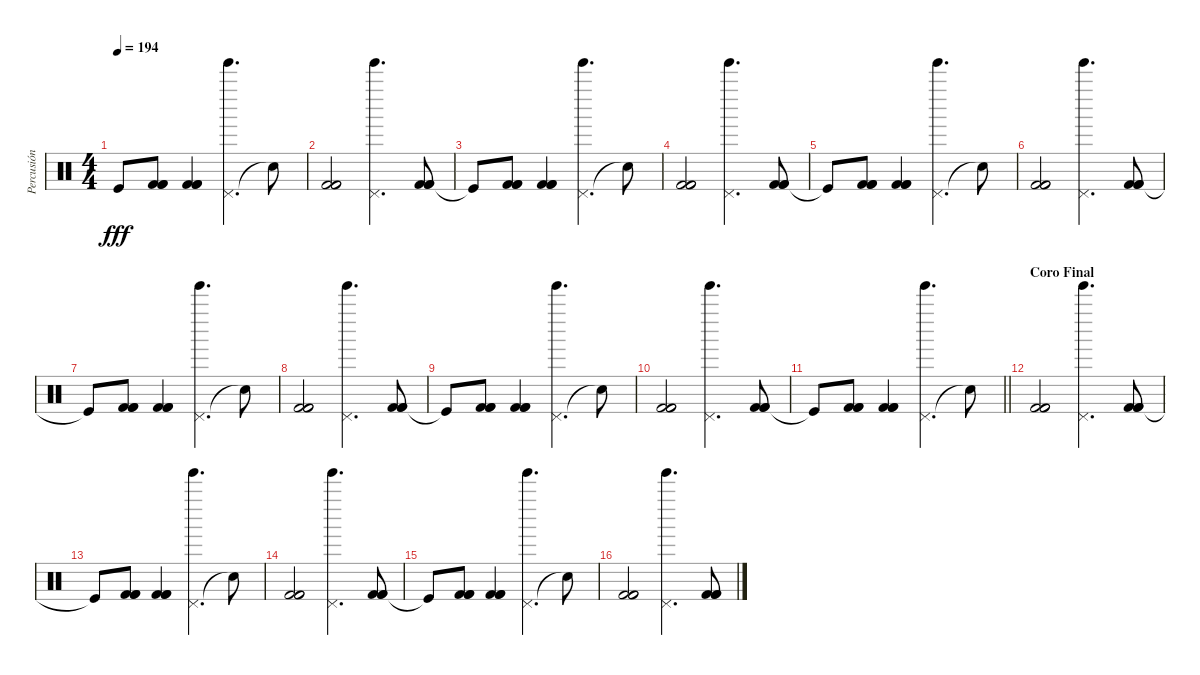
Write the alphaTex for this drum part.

\track ("Percusión" "Percusión") {instrument percussion}
\staff {score}
\articulation defaults
\ts (4 4)
\tempo 194
\clef neutral
\ks c "Kick (hit)"{t}.8{dy fff}
("Kick (hit) 2" "Kick (hit) 2" "Kick (hit) 2").8 ("Kick (hit) 2" "Kick (hit) 2" "Kick (hit) 2").4 ("Pedal Hi-Hat (hit)" "Tinkle Bell (hit)").4{d} "Snare (hit)"{t}.8 |
("Kick (hit) 2" "Kick (hit) 2" "Kick (hit) 2").2 ("Pedal Hi-Hat (hit)" "Tinkle Bell (hit)").4{d} ("Kick (hit) 2" "Kick (hit) 2" "Kick (hit) 2").8 |
"Kick (hit)"{t}.8 ("Kick (hit) 2" "Kick (hit) 2" "Kick (hit) 2").8 ("Kick (hit) 2" "Kick (hit) 2" "Kick (hit) 2").4 ("Pedal Hi-Hat (hit)" "Tinkle Bell (hit)").4{d} "Snare (hit)"{t}.8 |
("Kick (hit) 2" "Kick (hit) 2" "Kick (hit) 2").2 ("Pedal Hi-Hat (hit)" "Tinkle Bell (hit)").4{d} ("Kick (hit) 2" "Kick (hit) 2" "Kick (hit) 2").8 |
"Kick (hit)"{t}.8 ("Kick (hit) 2" "Kick (hit) 2" "Kick (hit) 2").8 ("Kick (hit) 2" "Kick (hit) 2" "Kick (hit) 2").4 ("Pedal Hi-Hat (hit)" "Tinkle Bell (hit)").4{d} "Snare (hit)"{t}.8 |
("Kick (hit) 2" "Kick (hit) 2" "Kick (hit) 2").2 ("Pedal Hi-Hat (hit)" "Tinkle Bell (hit)").4{d} ("Kick (hit) 2" "Kick (hit) 2" "Kick (hit) 2").8 |
"Kick (hit)"{t}.8 ("Kick (hit) 2" "Kick (hit) 2" "Kick (hit) 2").8 ("Kick (hit) 2" "Kick (hit) 2" "Kick (hit) 2").4 ("Pedal Hi-Hat (hit)" "Tinkle Bell (hit)").4{d} "Snare (hit)"{t}.8 |
("Kick (hit) 2" "Kick (hit) 2" "Kick (hit) 2").2 ("Pedal Hi-Hat (hit)" "Tinkle Bell (hit)").4{d} ("Kick (hit) 2" "Kick (hit) 2" "Kick (hit) 2").8 |
"Kick (hit)"{t}.8 ("Kick (hit) 2" "Kick (hit) 2" "Kick (hit) 2").8 ("Kick (hit) 2" "Kick (hit) 2" "Kick (hit) 2").4 ("Pedal Hi-Hat (hit)" "Tinkle Bell (hit)").4{d} "Snare (hit)"{t}.8 |
("Kick (hit) 2" "Kick (hit) 2" "Kick (hit) 2").2 ("Pedal Hi-Hat (hit)" "Tinkle Bell (hit)").4{d} ("Kick (hit) 2" "Kick (hit) 2" "Kick (hit) 2").8 |
\barLineRight lightlight "Kick (hit)"{t}.8
("Kick (hit) 2" "Kick (hit) 2" "Kick (hit) 2").8 ("Kick (hit) 2" "Kick (hit) 2" "Kick (hit) 2").4 ("Pedal Hi-Hat (hit)" "Tinkle Bell (hit)").4{d} "Snare (hit)"{t}.8 |
\section ("" "Coro Final")
("Kick (hit) 2" "Kick (hit) 2" "Kick (hit) 2").2 ("Pedal Hi-Hat (hit)" "Tinkle Bell (hit)").4{d} ("Kick (hit) 2" "Kick (hit) 2" "Kick (hit) 2").8 |
"Kick (hit)"{t}.8 ("Kick (hit) 2" "Kick (hit) 2" "Kick (hit) 2").8 ("Kick (hit) 2" "Kick (hit) 2" "Kick (hit) 2").4 ("Pedal Hi-Hat (hit)" "Tinkle Bell (hit)").4{d} "Snare (hit)"{t}.8 |
("Kick (hit) 2" "Kick (hit) 2" "Kick (hit) 2").2 ("Pedal Hi-Hat (hit)" "Tinkle Bell (hit)").4{d} ("Kick (hit) 2" "Kick (hit) 2" "Kick (hit) 2").8 |
"Kick (hit)"{t}.8 ("Kick (hit) 2" "Kick (hit) 2" "Kick (hit) 2").8 ("Kick (hit) 2" "Kick (hit) 2" "Kick (hit) 2").4 ("Pedal Hi-Hat (hit)" "Tinkle Bell (hit)").4{d} "Snare (hit)"{t}.8 |
("Kick (hit) 2" "Kick (hit) 2" "Kick (hit) 2").2 ("Pedal Hi-Hat (hit)" "Tinkle Bell (hit)").4{d} ("Kick (hit) 2" "Kick (hit) 2" "Kick (hit) 2").8
